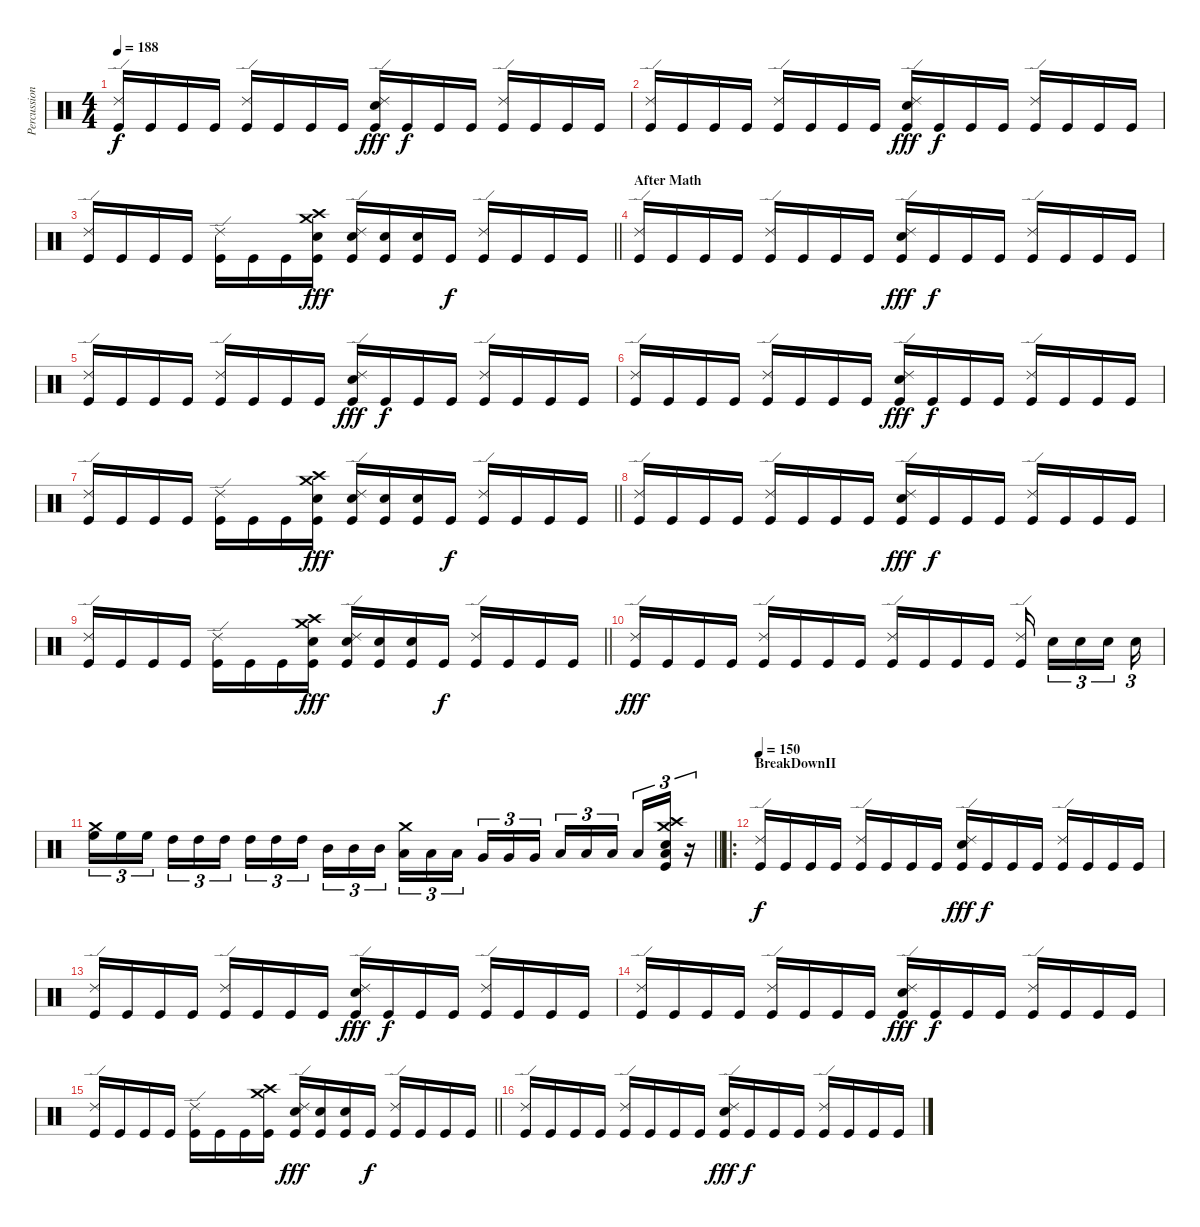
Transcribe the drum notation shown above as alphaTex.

\track ("Percussion" "Percussion") {instrument percussion}
\staff {score}
\articulation defaults
\ts (4 4)
\tempo 188
\clef neutral
\ks c
("Ride (edge) 2" "Kick (hit)").16{dy f} "Kick (hit)".16 "Kick (hit)".16 "Kick (hit)".16 ("Ride (edge) 2" "Kick (hit)").16 "Kick (hit)".16 "Kick (hit)".16 "Kick (hit)".16 ("Ride (edge) 2" "Snare (hit) 2" "Kick (hit)").16{dy fff} "Kick (hit)".16{dy f} "Kick (hit)".16 "Kick (hit)".16 ("Ride (edge) 2" "Kick (hit)").16 "Kick (hit)".16 "Kick (hit)".16 "Kick (hit)".16 |
("Ride (edge) 2" "Kick (hit)").16 "Kick (hit)".16 "Kick (hit)".16 "Kick (hit)".16 ("Ride (edge) 2" "Kick (hit)").16 "Kick (hit)".16 "Kick (hit)".16 "Kick (hit)".16 ("Ride (edge) 2" "Snare (hit) 2" "Kick (hit)").16{dy fff} "Kick (hit)".16{dy f} "Kick (hit)".16 "Kick (hit)".16 ("Ride (edge) 2" "Kick (hit)").16 "Kick (hit)".16 "Kick (hit)".16 "Kick (hit)".16 |
\barLineRight lightlight
("Ride (edge) 2" "Kick (hit)").16 "Kick (hit)".16 "Kick (hit)".16 "Kick (hit)".16 ("Ride (edge) 2" "Kick (hit)").16 "Kick (hit)".16 "Kick (hit)".16 ("Crash medium (hit)" "Crash high (hit)" "Snare (hit) 2" "Kick (hit)").16{dy fff} ("Ride (edge) 2" "Snare (hit) 2" "Kick (hit)").16 ("Snare (hit) 2" "Kick (hit)").16 ("Snare (hit) 2" "Kick (hit)").16 "Kick (hit)".16{dy f} ("Ride (edge) 2" "Kick (hit)").16 "Kick (hit)".16 "Kick (hit)".16 "Kick (hit)".16 |
\section ("" "After Math")
("Ride (edge) 2" "Kick (hit)").16 "Kick (hit)".16 "Kick (hit)".16 "Kick (hit)".16 ("Ride (edge) 2" "Kick (hit)").16 "Kick (hit)".16 "Kick (hit)".16 "Kick (hit)".16 ("Ride (edge) 2" "Snare (hit) 2" "Kick (hit)").16{dy fff} "Kick (hit)".16{dy f} "Kick (hit)".16 "Kick (hit)".16 ("Ride (edge) 2" "Kick (hit)").16 "Kick (hit)".16 "Kick (hit)".16 "Kick (hit)".16 |
("Ride (edge) 2" "Kick (hit)").16 "Kick (hit)".16 "Kick (hit)".16 "Kick (hit)".16 ("Ride (edge) 2" "Kick (hit)").16 "Kick (hit)".16 "Kick (hit)".16 "Kick (hit)".16 ("Ride (edge) 2" "Snare (hit) 2" "Kick (hit)").16{dy fff} "Kick (hit)".16{dy f} "Kick (hit)".16 "Kick (hit)".16 ("Ride (edge) 2" "Kick (hit)").16 "Kick (hit)".16 "Kick (hit)".16 "Kick (hit)".16 |
("Ride (edge) 2" "Kick (hit)").16 "Kick (hit)".16 "Kick (hit)".16 "Kick (hit)".16 ("Ride (edge) 2" "Kick (hit)").16 "Kick (hit)".16 "Kick (hit)".16 "Kick (hit)".16 ("Ride (edge) 2" "Snare (hit) 2" "Kick (hit)").16{dy fff} "Kick (hit)".16{dy f} "Kick (hit)".16 "Kick (hit)".16 ("Ride (edge) 2" "Kick (hit)").16 "Kick (hit)".16 "Kick (hit)".16 "Kick (hit)".16 |
\barLineRight lightlight
("Ride (edge) 2" "Kick (hit)").16 "Kick (hit)".16 "Kick (hit)".16 "Kick (hit)".16 ("Ride (edge) 2" "Kick (hit)").16 "Kick (hit)".16 "Kick (hit)".16 ("Crash medium (hit)" "Crash high (hit)" "Snare (hit) 2" "Kick (hit)").16{dy fff} ("Ride (edge) 2" "Snare (hit) 2" "Kick (hit)").16 ("Snare (hit) 2" "Kick (hit)").16 ("Snare (hit) 2" "Kick (hit)").16 "Kick (hit)".16{dy f} ("Ride (edge) 2" "Kick (hit)").16 "Kick (hit)".16 "Kick (hit)".16 "Kick (hit)".16 |
("Ride (edge) 2" "Kick (hit)").16 "Kick (hit)".16 "Kick (hit)".16 "Kick (hit)".16 ("Ride (edge) 2" "Kick (hit)").16 "Kick (hit)".16 "Kick (hit)".16 "Kick (hit)".16 ("Ride (edge) 2" "Snare (hit) 2" "Kick (hit)").16{dy fff} "Kick (hit)".16{dy f} "Kick (hit)".16 "Kick (hit)".16 ("Ride (edge) 2" "Kick (hit)").16 "Kick (hit)".16 "Kick (hit)".16 "Kick (hit)".16 |
\barLineRight lightlight
("Ride (edge) 2" "Kick (hit)").16{volume 16} "Kick (hit)".16 "Kick (hit)".16 "Kick (hit)".16 ("Ride (edge) 2" "Kick (hit)").16 "Kick (hit)".16 "Kick (hit)".16 ("Crash medium (hit)" "Crash high (hit)" "Snare (hit) 2" "Kick (hit)").16{dy fff} ("Ride (edge) 2" "Snare (hit) 2" "Kick (hit)").16 ("Snare (hit) 2" "Kick (hit)").16 ("Snare (hit) 2" "Kick (hit)").16 "Kick (hit)".16{dy f} ("Ride (edge) 2" "Kick (hit)").16 "Kick (hit)".16 "Kick (hit)".16 "Kick (hit)".16 |
("Ride (edge) 2" "Kick (hit)").16{dy fff} "Kick (hit)".16 "Kick (hit)".16 "Kick (hit)".16 ("Ride (edge) 2" "Kick (hit)").16 "Kick (hit)".16 "Kick (hit)".16 "Kick (hit)".16 ("Ride (edge) 2" "Kick (hit)").16 "Kick (hit)".16 "Kick (hit)".16 "Kick (hit)".16 ("Ride (edge) 2" "Kick (hit)").16{beam splitsecondary} "Snare (hit) 2".16{tu (3 2)} "Snare (hit) 2".16{tu (3 2)} "Snare (hit) 2".16{tu (3 2) beam splitsecondary} "Snare (hit) 2".16{tu (3 2)} |
\barLineRight lightlight
("Crash medium (hit)" "High Floor Tom (hit)").16{tu (3 2)} "High Floor Tom (hit)".16{tu (3 2)} "High Floor Tom (hit)".16{tu (3 2) beam splitsecondary} "High Tom (hit)".16{tu (3 2)} "High Tom (hit)".16{tu (3 2)} "High Tom (hit)".16{tu (3 2)} "High Tom (hit)".16{tu (3 2)} "High Tom (hit)".16{tu (3 2)} "High Tom (hit)".16{tu (3 2) beam splitsecondary} "Mid Tom (hit)".16{tu (3 2)} "Mid Tom (hit)".16{tu (3 2)} "Mid Tom (hit)".16{tu (3 2)} ("Crash medium (hit)" "Low Tom (hit)").16{tu (3 2)} "Low Tom (hit)".16{tu (3 2)} "Low Tom (hit)".16{tu (3 2) beam splitsecondary} "Very Low Tom (hit)".16{tu (3 2)} "Very Low Tom (hit)".16{tu (3 2)} "Very Low Tom (hit)".16{tu (3 2)} "Low Floor Tom (hit)".16{tu (3 2)} "Low Floor Tom (hit)".16{tu (3 2)} "Low Floor Tom (hit)".16{tu (3 2) beam splitsecondary} "Low Floor Tom (hit)".16{tu (3 2)} ("Crash medium (hit)" "Crash high (hit)" "Snare (hit) 2" "Kick (hit)" "Low Floor Tom (hit)").16{tu (3 2)} r.16{tu (3 2)} |
\ro
\section ("" "BreakDownII")
\tempo 150
("Ride (edge) 2" "Kick (hit)").16{dy f} "Kick (hit)".16 "Kick (hit)".16 "Kick (hit)".16 ("Ride (edge) 2" "Kick (hit)").16 "Kick (hit)".16 "Kick (hit)".16 "Kick (hit)".16 ("Ride (edge) 2" "Snare (hit) 2" "Kick (hit)").16{dy fff} "Kick (hit)".16{dy f} "Kick (hit)".16 "Kick (hit)".16 ("Ride (edge) 2" "Kick (hit)").16 "Kick (hit)".16 "Kick (hit)".16 "Kick (hit)".16 |
("Ride (edge) 2" "Kick (hit)").16 "Kick (hit)".16 "Kick (hit)".16 "Kick (hit)".16 ("Ride (edge) 2" "Kick (hit)").16 "Kick (hit)".16 "Kick (hit)".16 "Kick (hit)".16 ("Ride (edge) 2" "Snare (hit) 2" "Kick (hit)").16{dy fff} "Kick (hit)".16{dy f} "Kick (hit)".16 "Kick (hit)".16 ("Ride (edge) 2" "Kick (hit)").16 "Kick (hit)".16 "Kick (hit)".16 "Kick (hit)".16 |
("Ride (edge) 2" "Kick (hit)").16 "Kick (hit)".16 "Kick (hit)".16 "Kick (hit)".16 ("Ride (edge) 2" "Kick (hit)").16 "Kick (hit)".16 "Kick (hit)".16 "Kick (hit)".16 ("Ride (edge) 2" "Snare (hit) 2" "Kick (hit)").16{dy fff} "Kick (hit)".16{dy f} "Kick (hit)".16 "Kick (hit)".16 ("Ride (edge) 2" "Kick (hit)").16 "Kick (hit)".16 "Kick (hit)".16 "Kick (hit)".16 |
\barLineRight lightlight
("Ride (edge) 2" "Kick (hit)").16 "Kick (hit)".16 "Kick (hit)".16 "Kick (hit)".16 ("Ride (edge) 2" "Kick (hit)").16 "Kick (hit)".16 "Kick (hit)".16 ("Crash medium (hit)" "Crash high (hit)" "Kick (hit)").16 ("Ride (edge) 2" "Snare (hit) 2" "Kick (hit)").16{dy fff} ("Snare (hit) 2" "Kick (hit)").16 ("Snare (hit) 2" "Kick (hit)").16 "Kick (hit)".16{dy f} ("Ride (edge) 2" "Kick (hit)").16 "Kick (hit)".16 "Kick (hit)".16 "Kick (hit)".16 |
("Ride (edge) 2" "Kick (hit)").16 "Kick (hit)".16 "Kick (hit)".16 "Kick (hit)".16 ("Ride (edge) 2" "Kick (hit)").16 "Kick (hit)".16 "Kick (hit)".16 "Kick (hit)".16 ("Ride (edge) 2" "Snare (hit) 2" "Kick (hit)").16{dy fff} "Kick (hit)".16{dy f} "Kick (hit)".16 "Kick (hit)".16 ("Ride (edge) 2" "Kick (hit)").16 "Kick (hit)".16 "Kick (hit)".16 "Kick (hit)".16
